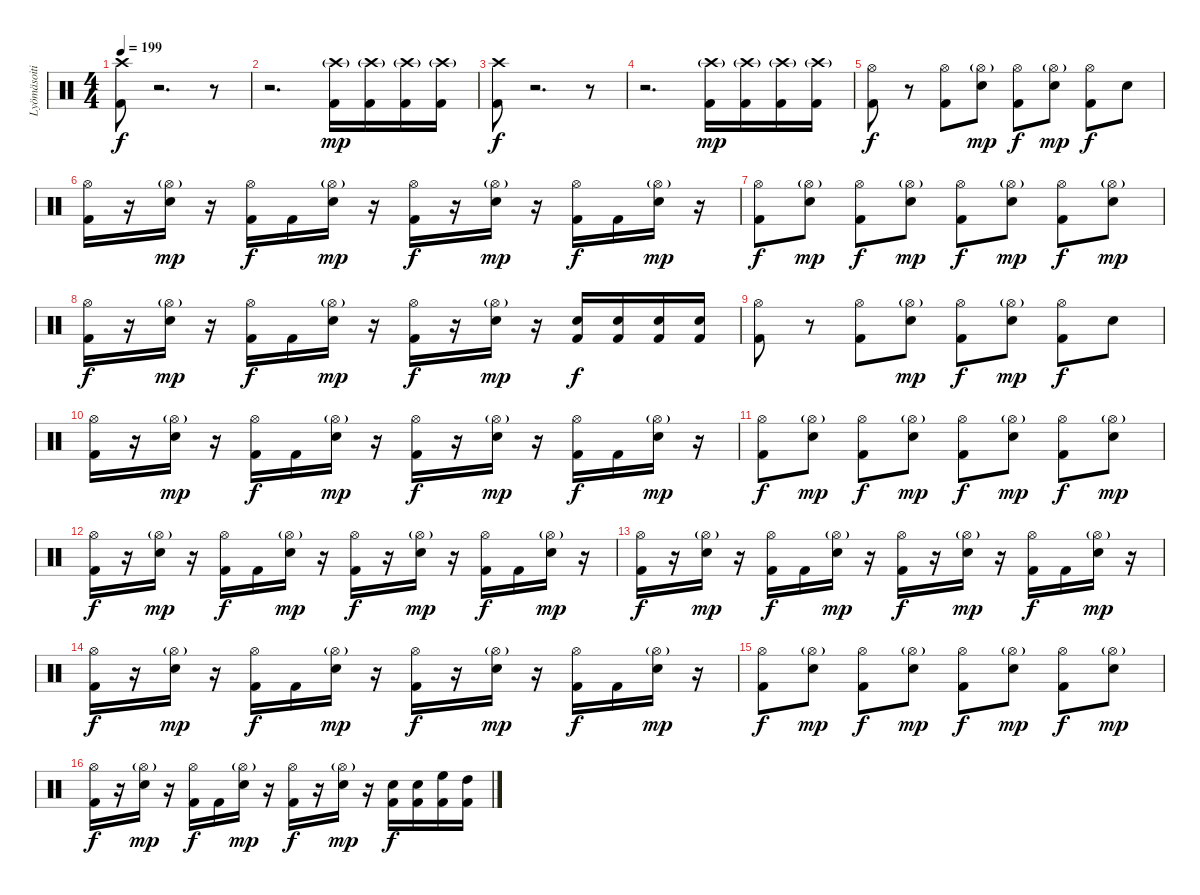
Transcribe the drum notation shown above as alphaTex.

\track ("Lyömäsoitin" "Lyömäsoiti") {instrument percussion}
\staff {score}
\articulation defaults
\ts (4 4)
\tempo 199
\clef neutral
\ks c
("Kick (hit) 2" "Crash high (hit)").8{dy f} r.2{d} r.8 |
r.2{d} ("Kick (hit) 2" "Crash high (hit)"{g}).16{dy mp} ("Kick (hit) 2" "Crash high (hit)"{g}).16 ("Kick (hit) 2" "Crash high (hit)"{g}).16 ("Kick (hit) 2" "Crash high (hit)"{g}).16 |
("Kick (hit) 2" "Crash high (hit)").8{dy f} r.2{d} r.8 |
r.2{d} ("Kick (hit) 2" "Crash high (hit)"{g}).16{dy mp} ("Kick (hit) 2" "Crash high (hit)"{g}).16 ("Kick (hit) 2" "Crash high (hit)"{g}).16 ("Kick (hit) 2" "Crash high (hit)"{g}).16 |
("Kick (hit) 2" "Hi-Hat (open)").8{dy f} r.8 ("Kick (hit) 2" "Hi-Hat (open)").8 ("Snare (hit) 2" "Hi-Hat (open)"{g}).8{dy mp} ("Kick (hit) 2" "Hi-Hat (open)").8{dy f} ("Snare (hit) 2" "Hi-Hat (open)"{g}).8{dy mp} ("Kick (hit) 2" "Hi-Hat (open)").8{dy f} "Snare (hit) 2".8 |
("Kick (hit) 2" "Hi-Hat (open)").16 r.16 ("Snare (hit) 2" "Hi-Hat (open)"{g}).16{dy mp} r.16 ("Kick (hit) 2" "Hi-Hat (open)").16{dy f} "Kick (hit) 2".16 ("Snare (hit) 2" "Hi-Hat (open)"{g}).16{dy mp} r.16 ("Kick (hit) 2" "Hi-Hat (open)").16{dy f} r.16 ("Snare (hit) 2" "Hi-Hat (open)"{g}).16{dy mp} r.16 ("Kick (hit) 2" "Hi-Hat (open)").16{dy f} "Kick (hit) 2".16 ("Snare (hit) 2" "Hi-Hat (open)"{g}).16{dy mp} r.16 |
("Kick (hit) 2" "Hi-Hat (open)").8{dy f} ("Snare (hit) 2" "Hi-Hat (open)"{g}).8{dy mp} ("Kick (hit) 2" "Hi-Hat (open)").8{dy f} ("Snare (hit) 2" "Hi-Hat (open)"{g}).8{dy mp} ("Kick (hit) 2" "Hi-Hat (open)").8{dy f} ("Snare (hit) 2" "Hi-Hat (open)"{g}).8{dy mp} ("Kick (hit) 2" "Hi-Hat (open)").8{dy f} ("Snare (hit) 2" "Hi-Hat (open)"{g}).8{dy mp} |
("Kick (hit) 2" "Hi-Hat (open)").16{dy f} r.16 ("Snare (hit) 2" "Hi-Hat (open)"{g}).16{dy mp} r.16 ("Kick (hit) 2" "Hi-Hat (open)").16{dy f} "Kick (hit) 2".16 ("Snare (hit) 2" "Hi-Hat (open)"{g}).16{dy mp} r.16 ("Kick (hit) 2" "Hi-Hat (open)").16{dy f} r.16 ("Snare (hit) 2" "Hi-Hat (open)"{g}).16{dy mp} r.16 ("Snare (hit) 2" "Kick (hit) 2").16{dy f} ("Snare (hit) 2" "Kick (hit) 2").16 ("Snare (hit) 2" "Kick (hit) 2").16 ("Snare (hit) 2" "Kick (hit) 2").16 |
("Kick (hit) 2" "Hi-Hat (open)").8 r.8 ("Kick (hit) 2" "Hi-Hat (open)").8 ("Snare (hit) 2" "Hi-Hat (open)"{g}).8{dy mp} ("Kick (hit) 2" "Hi-Hat (open)").8{dy f} ("Snare (hit) 2" "Hi-Hat (open)"{g}).8{dy mp} ("Kick (hit) 2" "Hi-Hat (open)").8{dy f} "Snare (hit) 2".8 |
("Kick (hit) 2" "Hi-Hat (open)").16 r.16 ("Snare (hit) 2" "Hi-Hat (open)"{g}).16{dy mp} r.16 ("Kick (hit) 2" "Hi-Hat (open)").16{dy f} "Kick (hit) 2".16 ("Snare (hit) 2" "Hi-Hat (open)"{g}).16{dy mp} r.16 ("Kick (hit) 2" "Hi-Hat (open)").16{dy f} r.16 ("Snare (hit) 2" "Hi-Hat (open)"{g}).16{dy mp} r.16 ("Kick (hit) 2" "Hi-Hat (open)").16{dy f} "Kick (hit) 2".16 ("Snare (hit) 2" "Hi-Hat (open)"{g}).16{dy mp} r.16 |
("Kick (hit) 2" "Hi-Hat (open)").8{dy f} ("Snare (hit) 2" "Hi-Hat (open)"{g}).8{dy mp} ("Kick (hit) 2" "Hi-Hat (open)").8{dy f} ("Snare (hit) 2" "Hi-Hat (open)"{g}).8{dy mp} ("Kick (hit) 2" "Hi-Hat (open)").8{dy f} ("Snare (hit) 2" "Hi-Hat (open)"{g}).8{dy mp} ("Kick (hit) 2" "Hi-Hat (open)").8{dy f} ("Snare (hit) 2" "Hi-Hat (open)"{g}).8{dy mp} |
("Kick (hit) 2" "Hi-Hat (open)").16{dy f} r.16 ("Snare (hit) 2" "Hi-Hat (open)"{g}).16{dy mp} r.16 ("Kick (hit) 2" "Hi-Hat (open)").16{dy f} "Kick (hit) 2".16 ("Snare (hit) 2" "Hi-Hat (open)"{g}).16{dy mp} r.16 ("Kick (hit) 2" "Hi-Hat (open)").16{dy f} r.16 ("Snare (hit) 2" "Hi-Hat (open)"{g}).16{dy mp} r.16 ("Kick (hit) 2" "Hi-Hat (open)").16{dy f} "Kick (hit) 2".16 ("Snare (hit) 2" "Hi-Hat (open)"{g}).16{dy mp} r.16 |
("Kick (hit) 2" "Hi-Hat (open)").16{dy f} r.16 ("Snare (hit) 2" "Hi-Hat (open)"{g}).16{dy mp} r.16 ("Kick (hit) 2" "Hi-Hat (open)").16{dy f} "Kick (hit) 2".16 ("Snare (hit) 2" "Hi-Hat (open)"{g}).16{dy mp} r.16 ("Kick (hit) 2" "Hi-Hat (open)").16{dy f} r.16 ("Snare (hit) 2" "Hi-Hat (open)"{g}).16{dy mp} r.16 ("Kick (hit) 2" "Hi-Hat (open)").16{dy f} "Kick (hit) 2".16 ("Snare (hit) 2" "Hi-Hat (open)"{g}).16{dy mp} r.16 |
("Kick (hit) 2" "Hi-Hat (open)").16{dy f} r.16 ("Snare (hit) 2" "Hi-Hat (open)"{g}).16{dy mp} r.16 ("Kick (hit) 2" "Hi-Hat (open)").16{dy f} "Kick (hit) 2".16 ("Snare (hit) 2" "Hi-Hat (open)"{g}).16{dy mp} r.16 ("Kick (hit) 2" "Hi-Hat (open)").16{dy f} r.16 ("Snare (hit) 2" "Hi-Hat (open)"{g}).16{dy mp} r.16 ("Kick (hit) 2" "Hi-Hat (open)").16{dy f} "Kick (hit) 2".16 ("Snare (hit) 2" "Hi-Hat (open)"{g}).16{dy mp} r.16 |
("Kick (hit) 2" "Hi-Hat (open)").8{dy f} ("Snare (hit) 2" "Hi-Hat (open)"{g}).8{dy mp} ("Kick (hit) 2" "Hi-Hat (open)").8{dy f} ("Snare (hit) 2" "Hi-Hat (open)"{g}).8{dy mp} ("Kick (hit) 2" "Hi-Hat (open)").8{dy f} ("Snare (hit) 2" "Hi-Hat (open)"{g}).8{dy mp} ("Kick (hit) 2" "Hi-Hat (open)").8{dy f} ("Snare (hit) 2" "Hi-Hat (open)"{g}).8{dy mp} |
("Kick (hit) 2" "Hi-Hat (open)").16{dy f} r.16 ("Snare (hit) 2" "Hi-Hat (open)"{g}).16{dy mp} r.16 ("Kick (hit) 2" "Hi-Hat (open)").16{dy f} "Kick (hit) 2".16 ("Snare (hit) 2" "Hi-Hat (open)"{g}).16{dy mp} r.16 ("Kick (hit) 2" "Hi-Hat (open)").16{dy f} r.16 ("Snare (hit) 2" "Hi-Hat (open)"{g}).16{dy mp} r.16 ("Snare (hit) 2" "Kick (hit) 2").16{dy f} ("Snare (hit) 2" "Kick (hit) 2").16 ("High Floor Tom (hit)" "Kick (hit) 2").16 ("High Tom (hit)" "Kick (hit) 2").16
